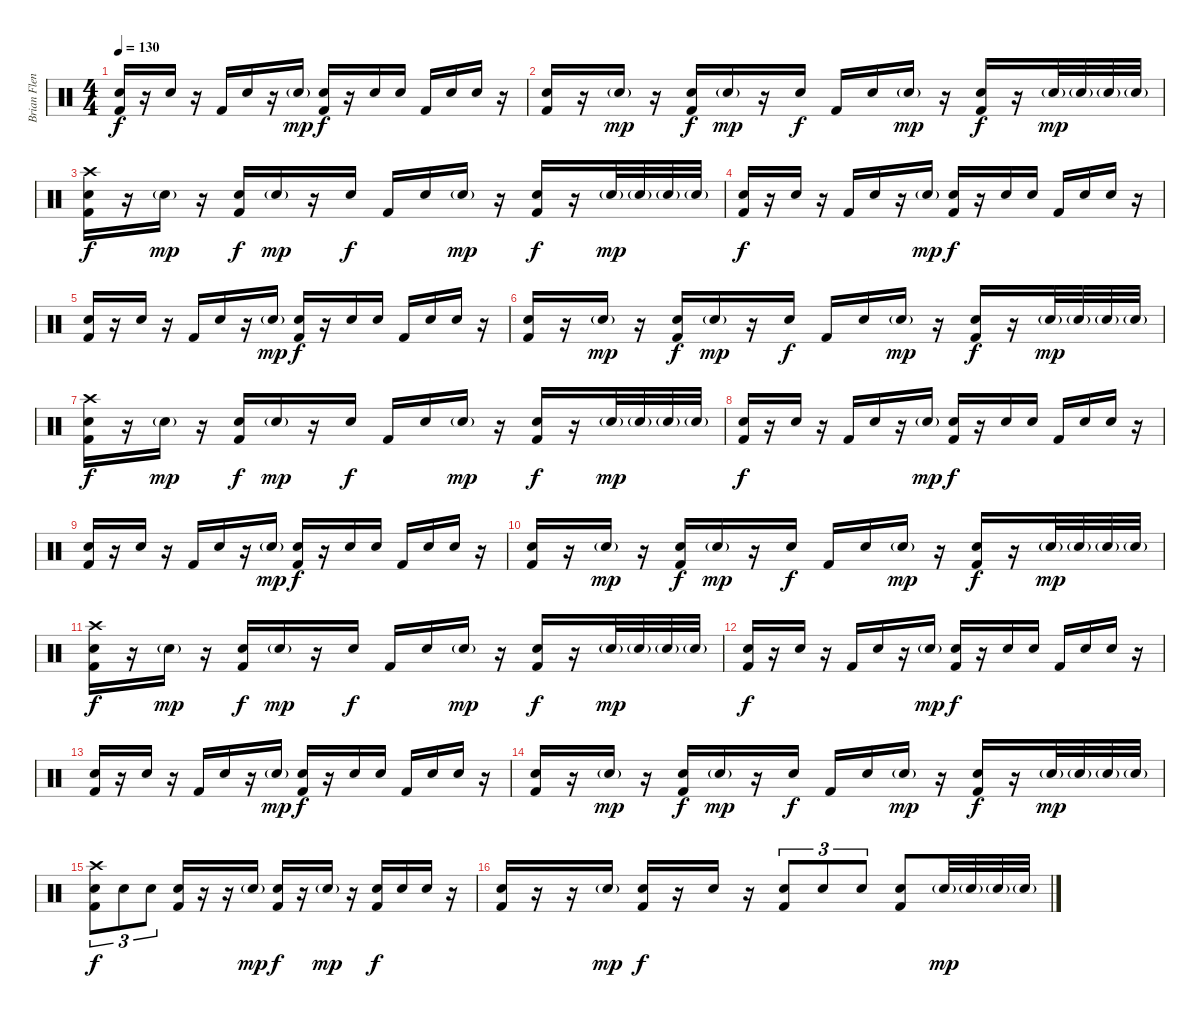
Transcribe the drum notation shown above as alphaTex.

\track ("Brian Flenniken" "Brian Flen") {instrument percussion}
\staff {score}
\articulation defaults
\ts (4 4)
\tempo 130
\clef neutral
\ks c
("Snare (hit) 2" "Kick (hit) 2").16{dy f} r.16 "Snare (hit) 2".16 r.16 "Kick (hit) 2".16 "Snare (hit) 2".16 r.16 "Snare (hit) 2"{g}.16{dy mp} ("Snare (hit) 2" "Kick (hit) 2").16{dy f} r.16 "Snare (hit) 2".16 "Snare (hit) 2".16 "Kick (hit) 2".16 "Snare (hit) 2".16 "Snare (hit) 2".16 r.16 |
("Snare (hit) 2" "Kick (hit) 2").16 r.16 "Snare (hit) 2"{g}.16{dy mp} r.16 ("Snare (hit) 2" "Kick (hit) 2").16{dy f} "Snare (hit) 2"{g}.16{dy mp} r.16 "Snare (hit) 2".16{dy f} "Kick (hit) 2".16 "Snare (hit) 2".16 "Snare (hit) 2"{g}.16{dy mp} r.16 ("Snare (hit) 2" "Kick (hit) 2").16{dy f} r.16 "Snare (hit) 2"{g}.32{dy mp} "Snare (hit) 2"{g}.32 "Snare (hit) 2"{g}.32 "Snare (hit) 2"{g}.32 |
("Crash high (hit)" "Snare (hit) 2" "Kick (hit) 2").16{dy f} r.16 "Snare (hit) 2"{g}.16{dy mp} r.16 ("Snare (hit) 2" "Kick (hit) 2").16{dy f} "Snare (hit) 2"{g}.16{dy mp} r.16 "Snare (hit) 2".16{dy f} "Kick (hit) 2".16 "Snare (hit) 2".16 "Snare (hit) 2"{g}.16{dy mp} r.16 ("Snare (hit) 2" "Kick (hit) 2").16{dy f} r.16 "Snare (hit) 2"{g}.32{dy mp} "Snare (hit) 2"{g}.32 "Snare (hit) 2"{g}.32 "Snare (hit) 2"{g}.32 |
("Snare (hit) 2" "Kick (hit) 2").16{dy f} r.16 "Snare (hit) 2".16 r.16 "Kick (hit) 2".16 "Snare (hit) 2".16 r.16 "Snare (hit) 2"{g}.16{dy mp} ("Snare (hit) 2" "Kick (hit) 2").16{dy f} r.16 "Snare (hit) 2".16 "Snare (hit) 2".16 "Kick (hit) 2".16 "Snare (hit) 2".16 "Snare (hit) 2".16 r.16 |
("Snare (hit) 2" "Kick (hit) 2").16 r.16 "Snare (hit) 2".16 r.16 "Kick (hit) 2".16 "Snare (hit) 2".16 r.16 "Snare (hit) 2"{g}.16{dy mp} ("Snare (hit) 2" "Kick (hit) 2").16{dy f} r.16 "Snare (hit) 2".16 "Snare (hit) 2".16 "Kick (hit) 2".16 "Snare (hit) 2".16 "Snare (hit) 2".16 r.16 |
("Snare (hit) 2" "Kick (hit) 2").16 r.16 "Snare (hit) 2"{g}.16{dy mp} r.16 ("Snare (hit) 2" "Kick (hit) 2").16{dy f} "Snare (hit) 2"{g}.16{dy mp} r.16 "Snare (hit) 2".16{dy f} "Kick (hit) 2".16 "Snare (hit) 2".16 "Snare (hit) 2"{g}.16{dy mp} r.16 ("Snare (hit) 2" "Kick (hit) 2").16{dy f} r.16 "Snare (hit) 2"{g}.32{dy mp} "Snare (hit) 2"{g}.32 "Snare (hit) 2"{g}.32 "Snare (hit) 2"{g}.32 |
("Crash high (hit)" "Snare (hit) 2" "Kick (hit) 2").16{dy f} r.16 "Snare (hit) 2"{g}.16{dy mp} r.16 ("Snare (hit) 2" "Kick (hit) 2").16{dy f} "Snare (hit) 2"{g}.16{dy mp} r.16 "Snare (hit) 2".16{dy f} "Kick (hit) 2".16 "Snare (hit) 2".16 "Snare (hit) 2"{g}.16{dy mp} r.16 ("Snare (hit) 2" "Kick (hit) 2").16{dy f} r.16 "Snare (hit) 2"{g}.32{dy mp} "Snare (hit) 2"{g}.32 "Snare (hit) 2"{g}.32 "Snare (hit) 2"{g}.32 |
("Snare (hit) 2" "Kick (hit) 2").16{dy f} r.16 "Snare (hit) 2".16 r.16 "Kick (hit) 2".16 "Snare (hit) 2".16 r.16 "Snare (hit) 2"{g}.16{dy mp} ("Snare (hit) 2" "Kick (hit) 2").16{dy f} r.16 "Snare (hit) 2".16 "Snare (hit) 2".16 "Kick (hit) 2".16 "Snare (hit) 2".16 "Snare (hit) 2".16 r.16 |
("Snare (hit) 2" "Kick (hit) 2").16 r.16 "Snare (hit) 2".16 r.16 "Kick (hit) 2".16 "Snare (hit) 2".16 r.16 "Snare (hit) 2"{g}.16{dy mp} ("Snare (hit) 2" "Kick (hit) 2").16{dy f} r.16 "Snare (hit) 2".16 "Snare (hit) 2".16 "Kick (hit) 2".16 "Snare (hit) 2".16 "Snare (hit) 2".16 r.16 |
("Snare (hit) 2" "Kick (hit) 2").16 r.16 "Snare (hit) 2"{g}.16{dy mp} r.16 ("Snare (hit) 2" "Kick (hit) 2").16{dy f} "Snare (hit) 2"{g}.16{dy mp} r.16 "Snare (hit) 2".16{dy f} "Kick (hit) 2".16 "Snare (hit) 2".16 "Snare (hit) 2"{g}.16{dy mp} r.16 ("Snare (hit) 2" "Kick (hit) 2").16{dy f} r.16 "Snare (hit) 2"{g}.32{dy mp} "Snare (hit) 2"{g}.32 "Snare (hit) 2"{g}.32 "Snare (hit) 2"{g}.32 |
("Crash high (hit)" "Snare (hit) 2" "Kick (hit) 2").16{dy f} r.16 "Snare (hit) 2"{g}.16{dy mp} r.16 ("Snare (hit) 2" "Kick (hit) 2").16{dy f} "Snare (hit) 2"{g}.16{dy mp} r.16 "Snare (hit) 2".16{dy f} "Kick (hit) 2".16 "Snare (hit) 2".16 "Snare (hit) 2"{g}.16{dy mp} r.16 ("Snare (hit) 2" "Kick (hit) 2").16{dy f} r.16 "Snare (hit) 2"{g}.32{dy mp} "Snare (hit) 2"{g}.32 "Snare (hit) 2"{g}.32 "Snare (hit) 2"{g}.32 |
("Snare (hit) 2" "Kick (hit) 2").16{dy f} r.16 "Snare (hit) 2".16 r.16 "Kick (hit) 2".16 "Snare (hit) 2".16 r.16 "Snare (hit) 2"{g}.16{dy mp} ("Snare (hit) 2" "Kick (hit) 2").16{dy f} r.16 "Snare (hit) 2".16 "Snare (hit) 2".16 "Kick (hit) 2".16 "Snare (hit) 2".16 "Snare (hit) 2".16 r.16 |
("Snare (hit) 2" "Kick (hit) 2").16 r.16 "Snare (hit) 2".16 r.16 "Kick (hit) 2".16 "Snare (hit) 2".16 r.16 "Snare (hit) 2"{g}.16{dy mp} ("Snare (hit) 2" "Kick (hit) 2").16{dy f} r.16 "Snare (hit) 2".16 "Snare (hit) 2".16 "Kick (hit) 2".16 "Snare (hit) 2".16 "Snare (hit) 2".16 r.16 |
("Snare (hit) 2" "Kick (hit) 2").16 r.16 "Snare (hit) 2"{g}.16{dy mp} r.16 ("Snare (hit) 2" "Kick (hit) 2").16{dy f} "Snare (hit) 2"{g}.16{dy mp} r.16 "Snare (hit) 2".16{dy f} "Kick (hit) 2".16 "Snare (hit) 2".16 "Snare (hit) 2"{g}.16{dy mp} r.16 ("Snare (hit) 2" "Kick (hit) 2").16{dy f} r.16 "Snare (hit) 2"{g}.32{dy mp} "Snare (hit) 2"{g}.32 "Snare (hit) 2"{g}.32 "Snare (hit) 2"{g}.32 |
("Crash high (hit)" "Snare (hit) 2" "Kick (hit) 2").8{tu (3 2) dy f} "Snare (hit) 2".8{tu (3 2)} "Snare (hit) 2".8{tu (3 2)} ("Snare (hit) 2" "Kick (hit) 2").16 r.16 r.16 "Snare (hit) 2"{g}.16{dy mp} ("Snare (hit) 2" "Kick (hit) 2").16{dy f} r.16 "Snare (hit) 2"{g}.16{dy mp} r.16 ("Snare (hit) 2" "Kick (hit) 2").16{dy f} "Snare (hit) 2".16 "Snare (hit) 2".16 r.16 |
("Snare (hit) 2" "Kick (hit) 2").16 r.16 r.16 "Snare (hit) 2"{g}.16{dy mp} ("Snare (hit) 2" "Kick (hit) 2").16{dy f} r.16 "Snare (hit) 2".16 r.16 ("Snare (hit) 2" "Kick (hit) 2").8{tu (3 2)} "Snare (hit) 2".8{tu (3 2)} "Snare (hit) 2".8{tu (3 2)} ("Snare (hit) 2" "Kick (hit) 2").8 "Snare (hit) 2"{g}.32{dy mp} "Snare (hit) 2"{g}.32 "Snare (hit) 2"{g}.32 "Snare (hit) 2"{g}.32
